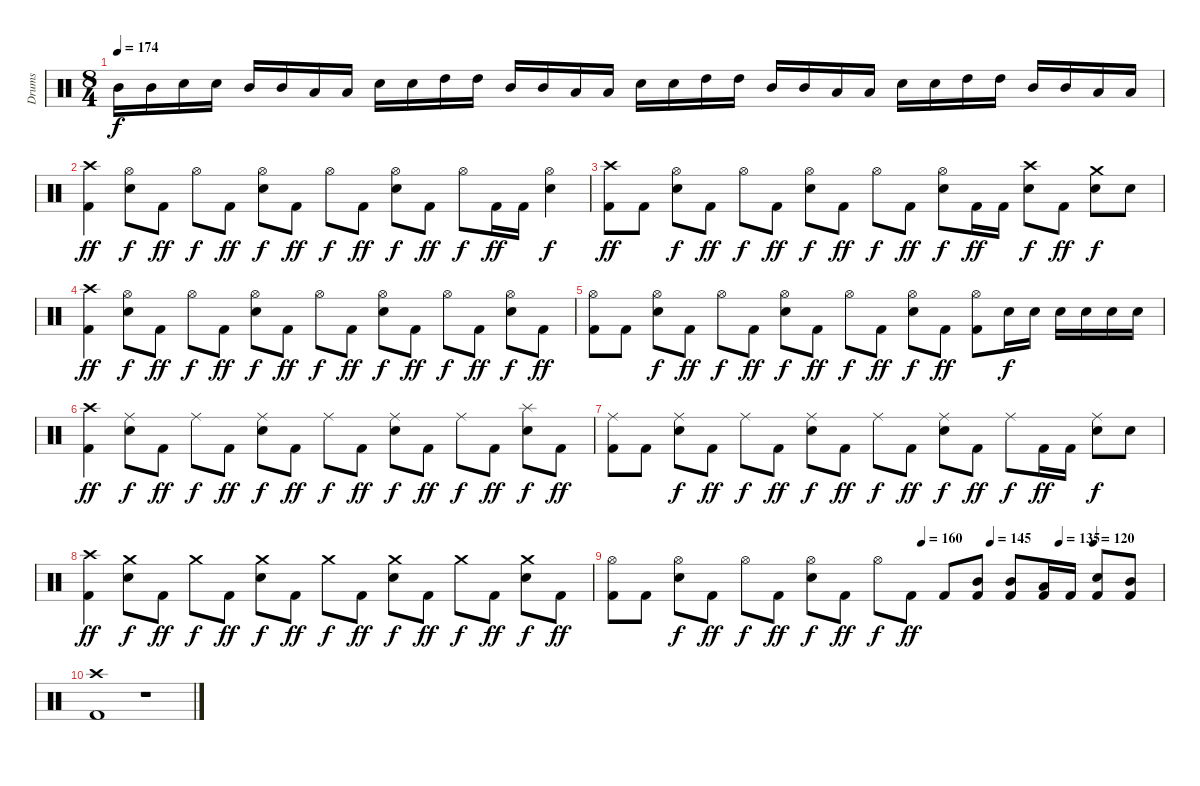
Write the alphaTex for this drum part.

\track ("Drums" "Drums") {instrument percussion}
\staff {score}
\articulation defaults
\ts (8 4)
\tempo 174
\clef neutral
\ks c "Mid Tom (hit)".16{dy f} "Mid Tom (hit)".16 "Snare (hit) 2".16 "Snare (hit) 2".16 "Mid Tom (hit)".16 "Mid Tom (hit)".16 "Low Tom (hit)".16 "Low Tom (hit)".16 "Snare (hit) 2".16 "Snare (hit) 2".16 "High Tom (hit)".16 "High Tom (hit)".16 "Mid Tom (hit)".16 "Mid Tom (hit)".16 "Low Tom (hit)".16 "Low Tom (hit)".16 "Snare (hit) 2".16 "Snare (hit) 2".16 "High Tom (hit)".16 "High Tom (hit)".16 "Mid Tom (hit)".16 "Mid Tom (hit)".16 "Low Tom (hit)".16 "Low Tom (hit)".16 "Snare (hit) 2".16 "Snare (hit) 2".16 "High Tom (hit)".16 "High Tom (hit)".16 "Mid Tom (hit)".16 "Mid Tom (hit)".16 "Low Tom (hit)".16 "Low Tom (hit)".16
|
("Crash high (hit)" "Kick (hit) 2").4{dy ff} ("Hi-Hat (open)" "Snare (hit) 2").8{dy f} "Kick (hit) 2".8{dy ff} "Hi-Hat (open)".8{dy f} "Kick (hit) 2".8{dy ff} ("Hi-Hat (open)" "Snare (hit) 2").8{dy f} "Kick (hit) 2".8{dy ff} "Hi-Hat (open)".8{dy f} "Kick (hit) 2".8{dy ff} ("Hi-Hat (open)" "Snare (hit) 2").8{dy f} "Kick (hit) 2".8{dy ff} "Hi-Hat (open)".8{dy f} "Kick (hit) 2".16{dy ff} "Kick (hit) 2".16 ("Hi-Hat (open)" "Snare (hit) 2").4{dy f} |
("Crash high (hit)" "Kick (hit) 2").8{dy ff} "Kick (hit) 2".8 ("Hi-Hat (open)" "Snare (hit) 2").8{dy f} "Kick (hit) 2".8{dy ff} "Hi-Hat (open)".8{dy f} "Kick (hit) 2".8{dy ff} ("Hi-Hat (open)" "Snare (hit) 2").8{dy f} "Kick (hit) 2".8{dy ff} "Hi-Hat (open)".8{dy f} "Kick (hit) 2".8{dy ff} ("Hi-Hat (open)" "Snare (hit) 2").8{dy f} "Kick (hit) 2".16{dy ff} "Kick (hit) 2".16 ("Crash high (hit)" "Snare (hit) 2").8{dy f} "Kick (hit) 2".8{dy ff} ("Crash medium (hit)" "Snare (hit) 2").8{dy f} "Snare (hit) 2".8 |
("Crash high (hit)" "Kick (hit) 2").4{dy ff} ("Hi-Hat (open)" "Snare (hit) 2").8{dy f} "Kick (hit) 2".8{dy ff} "Hi-Hat (open)".8{dy f} "Kick (hit) 2".8{dy ff} ("Hi-Hat (open)" "Snare (hit) 2").8{dy f} "Kick (hit) 2".8{dy ff} "Hi-Hat (open)".8{dy f} "Kick (hit) 2".8{dy ff} ("Hi-Hat (open)" "Snare (hit) 2").8{dy f} "Kick (hit) 2".8{dy ff} "Hi-Hat (open)".8{dy f} "Kick (hit) 2".8{dy ff} ("Hi-Hat (open)" "Snare (hit) 2").8{dy f} "Kick (hit) 2".8{dy ff} |
("Hi-Hat (open)" "Kick (hit) 2").8 "Kick (hit) 2".8 ("Hi-Hat (open)" "Snare (hit) 2").8{dy f} "Kick (hit) 2".8{dy ff} "Hi-Hat (open)".8{dy f} "Kick (hit) 2".8{dy ff} ("Hi-Hat (open)" "Snare (hit) 2").8{dy f} "Kick (hit) 2".8{dy ff} "Hi-Hat (open)".8{dy f} "Kick (hit) 2".8{dy ff} ("Hi-Hat (open)" "Snare (hit) 2").8{dy f} "Kick (hit) 2".8{dy ff} ("Hi-Hat (open)" "Kick (hit) 2").8 "Snare (hit) 2".16{dy f} "Snare (hit) 2".16 "Snare (hit) 2".16 "Snare (hit) 2".16 "Snare (hit) 2".16 "Snare (hit) 2".16 |
("Crash high (hit)" "Kick (hit) 2").4{dy ff} ("Ride (middle)" "Snare (hit) 2").8{dy f} "Kick (hit) 2".8{dy ff} "Ride (middle)".8{dy f} "Kick (hit) 2".8{dy ff} ("Ride (middle)" "Snare (hit) 2").8{dy f} "Kick (hit) 2".8{dy ff} "Ride (middle)".8{dy f} "Kick (hit) 2".8{dy ff} ("Ride (middle)" "Snare (hit) 2").8{dy f} "Kick (hit) 2".8{dy ff} "Ride (middle)".8{dy f} "Kick (hit) 2".8{dy ff} ("Splash (hit)" "Snare (hit) 2").8{dy f} "Kick (hit) 2".8{dy ff} |
("Ride (middle)" "Kick (hit) 2").8 "Kick (hit) 2".8 ("Ride (middle)" "Snare (hit) 2").8{dy f} "Kick (hit) 2".8{dy ff} "Ride (middle)".8{dy f} "Kick (hit) 2".8{dy ff} ("Ride (middle)" "Snare (hit) 2").8{dy f} "Kick (hit) 2".8{dy ff} "Ride (middle)".8{dy f} "Kick (hit) 2".8{dy ff} ("Ride (middle)" "Snare (hit) 2").8{dy f} "Kick (hit) 2".8{dy ff} "Ride (middle)".8{dy f} "Kick (hit) 2".16{dy ff} "Kick (hit) 2".16 ("Ride (middle)" "Snare (hit) 2").8{dy f} "Snare (hit) 2".8 |
("Crash high (hit)" "Kick (hit) 2").4{dy ff} ("Crash medium (hit)" "Snare (hit) 2").8{dy f} "Kick (hit) 2".8{dy ff} "Crash medium (hit)".8{dy f} "Kick (hit) 2".8{dy ff} ("Crash medium (hit)" "Snare (hit) 2").8{dy f} "Kick (hit) 2".8{dy ff} "Crash medium (hit)".8{dy f} "Kick (hit) 2".8{dy ff} ("Crash medium (hit)" "Snare (hit) 2").8{dy f} "Kick (hit) 2".8{dy ff} "Crash medium (hit)".8{dy f} "Kick (hit) 2".8{dy ff} ("Crash medium (hit)" "Snare (hit) 2").8{dy f} "Kick (hit) 2".8{dy ff} |
\tempo (160 0.5625)
\tempo (145 0.6875)
\tempo (135 0.8125)
\tempo (120 0.875)
("Hi-Hat (open)" "Kick (hit) 2").8 "Kick (hit) 2".8 ("Hi-Hat (open)" "Snare (hit) 2").8{dy f} "Kick (hit) 2".8{dy ff} "Hi-Hat (open)".8{dy f} "Kick (hit) 2".8{dy ff} ("Hi-Hat (open)" "Snare (hit) 2").8{dy f} "Kick (hit) 2".8{dy ff} "Hi-Hat (open)".8{dy f} "Kick (hit) 2".8{dy ff} "Kick (hit) 2".8 ("Mid Tom (hit)" "Kick (hit) 2").8 ("Mid Tom (hit)" "Kick (hit) 2").8 ("Low Tom (hit)" "Kick (hit) 2").16 "Kick (hit) 2".16 ("Snare (hit) 2" "Kick (hit) 2").8 ("Mid Tom (hit)" "Kick (hit) 2").8 |
("Crash high (hit)" "Kick (hit) 2").1 r.1
